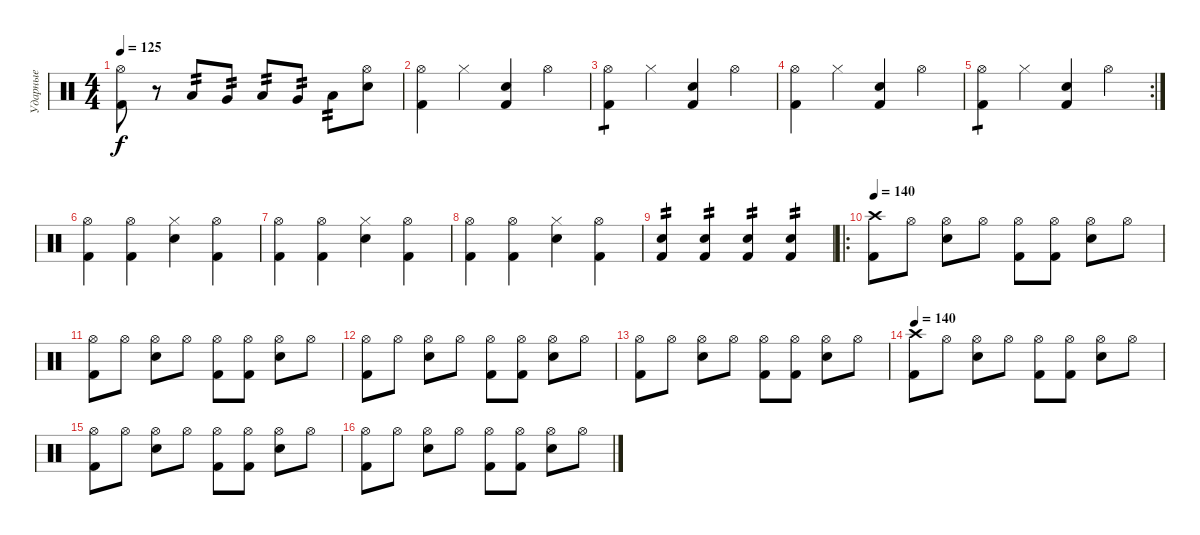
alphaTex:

\track ("Ударные" "Ударные") {instrument percussion}
\staff {score}
\articulation defaults
\ts (4 4)
\tempo 125
\clef neutral
\ks c
("Hi-Hat (open)" "Kick (hit) 2").8{dy f} r.8 "Low Floor Tom (hit)".8{tp 2} "Very Low Tom (hit)".8{tp 2} "Low Tom (hit)".8{tp 2} "Very Low Tom (hit)".8{tp 2} "Low Floor Tom (hit)".8{tp 2} ("Hi-Hat (open)" "Snare (hit) 2").8 |
("Hi-Hat (open)" "Kick (hit) 2").4 "Hi-Hat (closed)".4 ("Electric Snare (hit)" "Kick (hit) 2").4 "Hi-Hat (open)".4 |
("Hi-Hat (open)" "Kick (hit) 2").4{tp 1} "Hi-Hat (closed)".4 ("Electric Snare (hit)" "Kick (hit) 2").4 "Hi-Hat (open)".4 |
("Hi-Hat (open)" "Kick (hit) 2").4 "Hi-Hat (closed)".4 ("Electric Snare (hit)" "Kick (hit) 2").4 "Hi-Hat (open)".4 |
\rc 2
("Hi-Hat (open)" "Kick (hit) 2").4{tp 1} "Hi-Hat (closed)".4 ("Electric Snare (hit)" "Kick (hit) 2").4 "Hi-Hat (open)".4 |
("Hi-Hat (open)" "Kick (hit) 2").4 ("Hi-Hat (open)" "Kick (hit) 2").4 ("Hi-Hat (closed)" "Electric Snare (hit)").4 ("Hi-Hat (open)" "Kick (hit) 2").4 |
("Hi-Hat (open)" "Kick (hit) 2").4 ("Hi-Hat (open)" "Kick (hit) 2").4 ("Hi-Hat (closed)" "Electric Snare (hit)").4 ("Hi-Hat (open)" "Kick (hit) 2").4 |
("Hi-Hat (open)" "Kick (hit) 2").4 ("Hi-Hat (open)" "Kick (hit) 2").4 ("Hi-Hat (closed)" "Electric Snare (hit)").4 ("Hi-Hat (open)" "Kick (hit) 2").4 |
("Electric Snare (hit)" "Kick (hit) 2").4{tp 2} ("Electric Snare (hit)" "Kick (hit) 2").4{tp 2} ("Electric Snare (hit)" "Kick (hit) 2").4{tp 2} ("Electric Snare (hit)" "Kick (hit) 2").4{tp 2} |
\ro
\tempo 140
("Crash high (hit)" "Kick (hit) 2").8 "Hi-Hat (open)".8 ("Hi-Hat (open)" "Electric Snare (hit)").8 "Hi-Hat (open)".8 ("Hi-Hat (open)" "Kick (hit) 2").8 ("Hi-Hat (open)" "Kick (hit) 2").8 ("Hi-Hat (open)" "Electric Snare (hit)").8 "Hi-Hat (open)".8 |
("Hi-Hat (open)" "Kick (hit) 2").8 "Hi-Hat (open)".8 ("Hi-Hat (open)" "Electric Snare (hit)").8 "Hi-Hat (open)".8 ("Hi-Hat (open)" "Kick (hit) 2").8 ("Hi-Hat (open)" "Kick (hit) 2").8 ("Hi-Hat (open)" "Electric Snare (hit)").8 "Hi-Hat (open)".8 |
("Hi-Hat (open)" "Kick (hit) 2").8 "Hi-Hat (open)".8 ("Hi-Hat (open)" "Electric Snare (hit)").8 "Hi-Hat (open)".8 ("Hi-Hat (open)" "Kick (hit) 2").8 ("Hi-Hat (open)" "Kick (hit) 2").8 ("Hi-Hat (open)" "Electric Snare (hit)").8 "Hi-Hat (open)".8 |
("Hi-Hat (open)" "Kick (hit) 2").8 "Hi-Hat (open)".8 ("Hi-Hat (open)" "Electric Snare (hit)").8 "Hi-Hat (open)".8 ("Hi-Hat (open)" "Kick (hit) 2").8 ("Hi-Hat (open)" "Kick (hit) 2").8 ("Hi-Hat (open)" "Electric Snare (hit)").8 "Hi-Hat (open)".8 |
\tempo 140
("Crash high (hit)" "Kick (hit) 2").8 "Hi-Hat (open)".8 ("Hi-Hat (open)" "Electric Snare (hit)").8 "Hi-Hat (open)".8 ("Hi-Hat (open)" "Kick (hit) 2").8 ("Hi-Hat (open)" "Kick (hit) 2").8 ("Hi-Hat (open)" "Electric Snare (hit)").8 "Hi-Hat (open)".8 |
("Hi-Hat (open)" "Kick (hit) 2").8 "Hi-Hat (open)".8 ("Hi-Hat (open)" "Electric Snare (hit)").8 "Hi-Hat (open)".8 ("Hi-Hat (open)" "Kick (hit) 2").8 ("Hi-Hat (open)" "Kick (hit) 2").8 ("Hi-Hat (open)" "Electric Snare (hit)").8 "Hi-Hat (open)".8 |
("Hi-Hat (open)" "Kick (hit) 2").8 "Hi-Hat (open)".8 ("Hi-Hat (open)" "Electric Snare (hit)").8 "Hi-Hat (open)".8 ("Hi-Hat (open)" "Kick (hit) 2").8 ("Hi-Hat (open)" "Kick (hit) 2").8 ("Hi-Hat (open)" "Electric Snare (hit)").8 "Hi-Hat (open)".8
